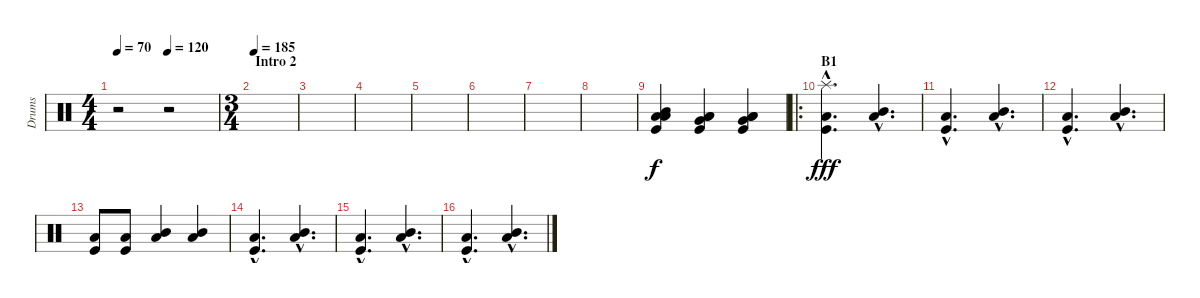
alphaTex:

\track ("Drums" "Drums") {instrument percussion}
\staff {score}
\articulation defaults
\ts (4 4)
\tempo 70
\tempo (120 0.5)
\clef neutral
\ks c
r.2{dy mp} r.2 |
\ts (3 4)
\section ("" "Intro 2")
\tempo 185
|
|
|
|
|
|
|
("Mid Tom (hit)" "Low Tom (hit)" "Low Floor Tom (hit)" "Kick (hit)").4{dy f} ("Low Tom (hit)" "Very Low Tom (hit)" "Low Floor Tom (hit)" "Kick (hit)").4 ("Very Low Tom (hit)" "Low Floor Tom (hit)" "Low Floor Tom (hit)" "Kick (hit)").4 |
\ro
\section ("" "B1")
("Splash (hit)"{hac} "Low Floor Tom (hit)"{hac} "Kick (hit)"{hac}).4{d dy fff} ("Mid Tom (hit)"{hac} "Low Floor Tom (hit)"{hac}).4{d} |
("Low Floor Tom (hit)"{hac} "Kick (hit)"{hac}).4{d} ("Mid Tom (hit)"{hac} "Low Floor Tom (hit)"{hac}).4{d} |
("Low Floor Tom (hit)"{hac} "Kick (hit)"{hac}).4{d} ("Mid Tom (hit)"{hac} "Low Floor Tom (hit)"{hac}).4{d} |
("Low Floor Tom (hit)" "Kick (hit)").8 ("Low Floor Tom (hit)" "Kick (hit)").8 ("Mid Tom (hit)" "Low Floor Tom (hit)").4 ("Mid Tom (hit)" "Low Floor Tom (hit)").4 |
("Low Floor Tom (hit)"{hac} "Kick (hit)"{hac}).4{d} ("Mid Tom (hit)"{hac} "Low Floor Tom (hit)"{hac}).4{d} |
("Low Floor Tom (hit)"{hac} "Kick (hit)"{hac}).4{d} ("Mid Tom (hit)"{hac} "Low Floor Tom (hit)"{hac}).4{d} |
("Low Floor Tom (hit)"{hac} "Kick (hit)"{hac}).4{d} ("Mid Tom (hit)"{hac} "Low Floor Tom (hit)"{hac}).4{d}
